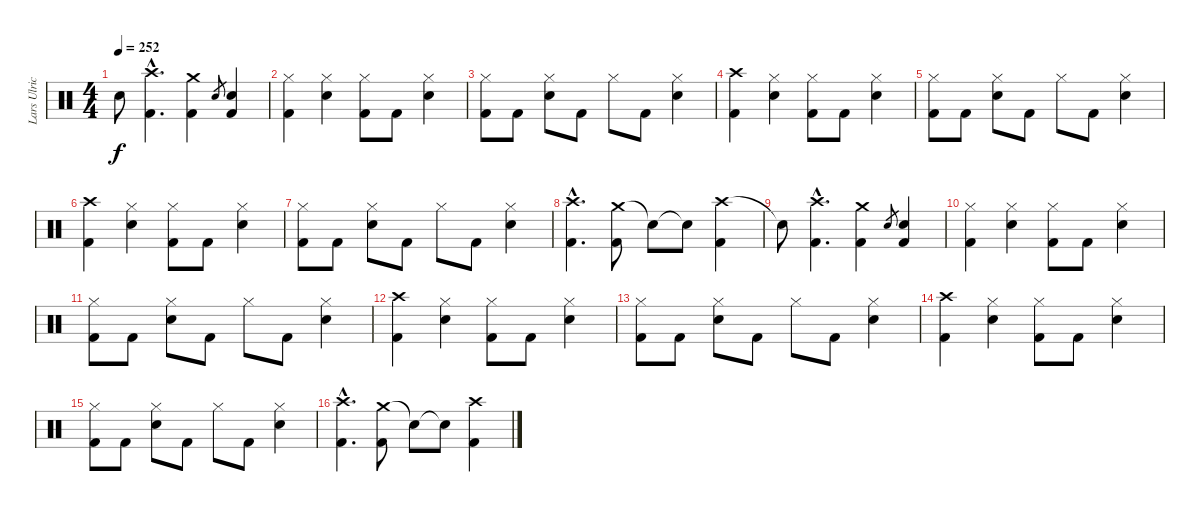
\track ("Lars Ulrich (Drums)" "Lars Ulric") {instrument percussion}
\staff {score}
\articulation defaults
\ts (4 4)
\tempo 252
\clef neutral
\ks c "Snare (hit)"{t}.8{dy f}
("Crash high (hit)"{hac} "Kick (hit) 2"{hac}).4{d} ("Crash medium (hit)" "Kick (hit) 2").4 "Electric Snare (hit)".8{gr} ("Electric Snare (hit)" "Kick (hit) 2").4 |
("Hi-Hat (closed)" "Kick (hit) 2").4 ("Hi-Hat (closed)" "Electric Snare (hit)").4 ("Hi-Hat (closed)" "Kick (hit) 2").8 "Kick (hit) 2".8 ("Hi-Hat (closed)" "Electric Snare (hit)").4 |
("Hi-Hat (closed)" "Kick (hit) 2").8 "Kick (hit) 2".8 ("Hi-Hat (closed)" "Electric Snare (hit)").8 "Kick (hit) 2".8 "Hi-Hat (closed)".8 "Kick (hit) 2".8 ("Hi-Hat (closed)" "Electric Snare (hit)").4 |
("Crash high (hit)" "Kick (hit) 2").4 ("Hi-Hat (closed)" "Electric Snare (hit)").4 ("Hi-Hat (closed)" "Kick (hit) 2").8 "Kick (hit) 2".8 ("Hi-Hat (closed)" "Electric Snare (hit)").4 |
("Hi-Hat (closed)" "Kick (hit) 2").8 "Kick (hit) 2".8 ("Hi-Hat (closed)" "Electric Snare (hit)").8 "Kick (hit) 2".8 "Hi-Hat (closed)".8 "Kick (hit) 2".8 ("Hi-Hat (closed)" "Electric Snare (hit)").4 |
("Crash high (hit)" "Kick (hit) 2").4 ("Hi-Hat (closed)" "Electric Snare (hit)").4 ("Hi-Hat (closed)" "Kick (hit) 2").8 "Kick (hit) 2".8 ("Hi-Hat (closed)" "Electric Snare (hit)").4 |
("Hi-Hat (closed)" "Kick (hit) 2").8 "Kick (hit) 2".8 ("Hi-Hat (closed)" "Electric Snare (hit)").8 "Kick (hit) 2".8 "Hi-Hat (closed)".8 "Kick (hit) 2".8 ("Hi-Hat (closed)" "Electric Snare (hit)").4 |
("Crash high (hit)"{hac} "Kick (hit) 2"{hac}).4{d} ("Crash medium (hit)" "Kick (hit) 2").8 "Snare (hit)"{t}.8 "Snare (hit)"{t}.8 ("Crash high (hit)" "Kick (hit) 2").4 |
"Snare (hit)"{t}.8 ("Crash high (hit)"{hac} "Kick (hit) 2"{hac}).4{d} ("Crash medium (hit)" "Kick (hit) 2").4 "Electric Snare (hit)".8{gr} ("Electric Snare (hit)" "Kick (hit) 2").4 |
("Hi-Hat (closed)" "Kick (hit) 2").4 ("Hi-Hat (closed)" "Electric Snare (hit)").4 ("Hi-Hat (closed)" "Kick (hit) 2").8 "Kick (hit) 2".8 ("Hi-Hat (closed)" "Electric Snare (hit)").4 |
("Hi-Hat (closed)" "Kick (hit) 2").8 "Kick (hit) 2".8 ("Hi-Hat (closed)" "Electric Snare (hit)").8 "Kick (hit) 2".8 "Hi-Hat (closed)".8 "Kick (hit) 2".8 ("Hi-Hat (closed)" "Electric Snare (hit)").4 |
("Crash high (hit)" "Kick (hit) 2").4 ("Hi-Hat (closed)" "Electric Snare (hit)").4 ("Hi-Hat (closed)" "Kick (hit) 2").8 "Kick (hit) 2".8 ("Hi-Hat (closed)" "Electric Snare (hit)").4 |
("Hi-Hat (closed)" "Kick (hit) 2").8 "Kick (hit) 2".8 ("Hi-Hat (closed)" "Electric Snare (hit)").8 "Kick (hit) 2".8 "Hi-Hat (closed)".8 "Kick (hit) 2".8 ("Hi-Hat (closed)" "Electric Snare (hit)").4 |
("Crash high (hit)" "Kick (hit) 2").4 ("Hi-Hat (closed)" "Electric Snare (hit)").4 ("Hi-Hat (closed)" "Kick (hit) 2").8 "Kick (hit) 2".8 ("Hi-Hat (closed)" "Electric Snare (hit)").4 |
("Hi-Hat (closed)" "Kick (hit) 2").8 "Kick (hit) 2".8 ("Hi-Hat (closed)" "Electric Snare (hit)").8 "Kick (hit) 2".8 "Hi-Hat (closed)".8 "Kick (hit) 2".8 ("Hi-Hat (closed)" "Electric Snare (hit)").4 |
("Crash high (hit)"{hac} "Kick (hit) 2"{hac}).4{d} ("Crash medium (hit)" "Kick (hit) 2").8 "Snare (hit)"{t}.8 "Snare (hit)"{t}.8 ("Crash high (hit)" "Kick (hit) 2").4
